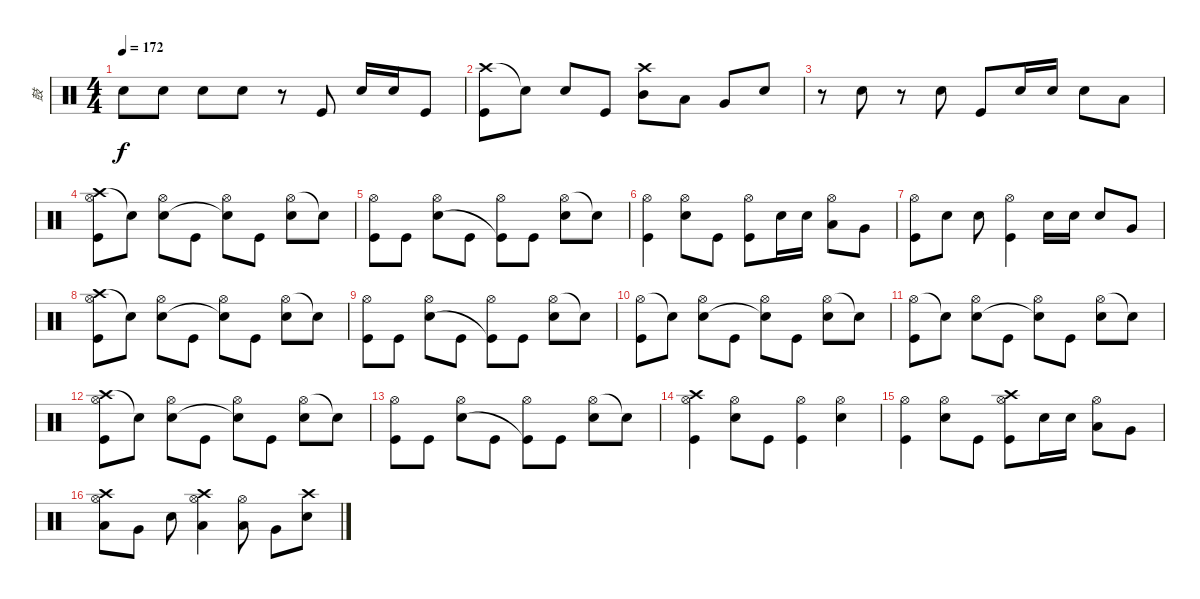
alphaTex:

\track ("鼓" "鼓") {instrument percussion}
\staff {score}
\articulation defaults
\ts (4 4)
\tempo 172
\clef neutral
\ks c "Snare (hit) 2".8{dy f} "Snare (hit) 2".8 "Snare (hit) 2".8 "Snare (hit) 2".8
r.8 "Kick (hit)".8 "Snare (hit) 2".16 "Snare (hit) 2".16 "Kick (hit)".8 |
("Crash high (hit)" "Kick (hit)").8 "Snare (hit)"{t}.8 "Snare (hit) 2".8 "Kick (hit)".8 ("Crash high (hit)" "Mid Tom (hit)").8 "Low Tom (hit)".8 "Very Low Tom (hit)".8 "Snare (hit) 2".8 |
r.8 "Snare (hit) 2".8 r.8 "Snare (hit) 2".8 "Kick (hit)".8 "Snare (hit) 2".16 "Snare (hit) 2".16 "Snare (hit) 2".8 "Low Tom (hit)".8 |
("Crash high (hit)" "Hi-Hat (open)" "Kick (hit)").8 "Snare (hit) 2"{t}.8 ("Hi-Hat (open)" "Snare (hit) 2").8 "Kick (hit)".8 ("Hi-Hat (open)" "Snare (hit) 2"{t}).8 "Kick (hit)".8 ("Hi-Hat (open)" "Snare (hit) 2").8 "Snare (hit)"{t}.8 |
("Hi-Hat (open)" "Kick (hit)").8 "Kick (hit)".8 ("Hi-Hat (open)" "Snare (hit) 2").8 "Kick (hit)".8 ("Hi-Hat (open)" "Kick (hit)"{t}).8 "Kick (hit)".8 ("Hi-Hat (open)" "Snare (hit) 2").8 "Snare (hit)"{t}.8 |
("Hi-Hat (open)" "Kick (hit)").4 ("Hi-Hat (open)" "Snare (hit) 2").8 "Kick (hit)".8 ("Hi-Hat (open)" "Kick (hit)").8 "Snare (hit) 2".16 "Snare (hit) 2".16 ("Hi-Hat (open)" "Low Tom (hit)").8 "Very Low Tom (hit)".8 |
("Hi-Hat (open)" "Kick (hit)").8 "Snare (hit) 2".8 "Snare (hit) 2".8 ("Hi-Hat (open)" "Kick (hit)").4 "Snare (hit) 2".16 "Snare (hit) 2".16 "Snare (hit) 2".8 "Very Low Tom (hit)".8 |
("Crash high (hit)" "Hi-Hat (open)" "Kick (hit)").8 "Snare (hit) 2"{t}.8 ("Hi-Hat (open)" "Snare (hit) 2").8 "Kick (hit)".8 ("Hi-Hat (open)" "Snare (hit) 2"{t}).8 "Kick (hit)".8 ("Hi-Hat (open)" "Snare (hit) 2").8 "Snare (hit)"{t}.8 |
("Hi-Hat (open)" "Kick (hit)").8 "Kick (hit)".8 ("Hi-Hat (open)" "Snare (hit) 2").8 "Kick (hit)".8 ("Hi-Hat (open)" "Kick (hit)"{t}).8 "Kick (hit)".8 ("Hi-Hat (open)" "Snare (hit) 2").8 "Snare (hit)"{t}.8 |
("Hi-Hat (open)" "Kick (hit)").8 "Snare (hit) 2"{t}.8 ("Hi-Hat (open)" "Snare (hit) 2").8 "Kick (hit)".8 ("Hi-Hat (open)" "Snare (hit) 2"{t}).8 "Kick (hit)".8 ("Hi-Hat (open)" "Snare (hit) 2").8 "Snare (hit)"{t}.8 |
("Hi-Hat (open)" "Kick (hit)").8 "Snare (hit) 2"{t}.8 ("Hi-Hat (open)" "Snare (hit) 2").8 "Kick (hit)".8 ("Hi-Hat (open)" "Snare (hit) 2"{t}).8 "Kick (hit)".8 ("Hi-Hat (open)" "Snare (hit) 2").8 "Snare (hit)"{t}.8 |
("Crash high (hit)" "Hi-Hat (open)" "Kick (hit)").8 "Snare (hit) 2"{t}.8 ("Hi-Hat (open)" "Snare (hit) 2").8 "Kick (hit)".8 ("Hi-Hat (open)" "Snare (hit) 2"{t}).8 "Kick (hit)".8 ("Hi-Hat (open)" "Snare (hit) 2").8 "Snare (hit)"{t}.8 |
("Hi-Hat (open)" "Kick (hit)").8 "Kick (hit)".8 ("Hi-Hat (open)" "Snare (hit) 2").8 "Kick (hit)".8 ("Hi-Hat (open)" "Kick (hit)"{t}).8 "Kick (hit)".8 ("Hi-Hat (open)" "Snare (hit) 2").8 "Snare (hit)"{t}.8 |
("Crash high (hit)" "Hi-Hat (open)" "Kick (hit)").4 ("Hi-Hat (open)" "Snare (hit) 2").8 "Kick (hit)".8 ("Hi-Hat (open)" "Kick (hit)").4 ("Hi-Hat (open)" "Snare (hit) 2").4 |
("Hi-Hat (open)" "Kick (hit)").4 ("Hi-Hat (open)" "Snare (hit) 2").8 "Kick (hit)".8 ("Crash high (hit)" "Hi-Hat (open)" "Kick (hit)").8 "Snare (hit) 2".16 "Snare (hit) 2".16 ("Hi-Hat (open)" "Low Tom (hit)").8 "Very Low Tom (hit)".8 |
("Crash high (hit)" "Hi-Hat (open)" "Low Tom (hit)").8 "Very Low Tom (hit)".8 "Snare (hit) 2".8 ("Crash high (hit)" "Hi-Hat (open)" "Low Tom (hit)").4 ("Hi-Hat (open)" "Low Tom (hit)").8 "Very Low Tom (hit)".8 ("Crash high (hit)" "Snare (hit) 2").8
